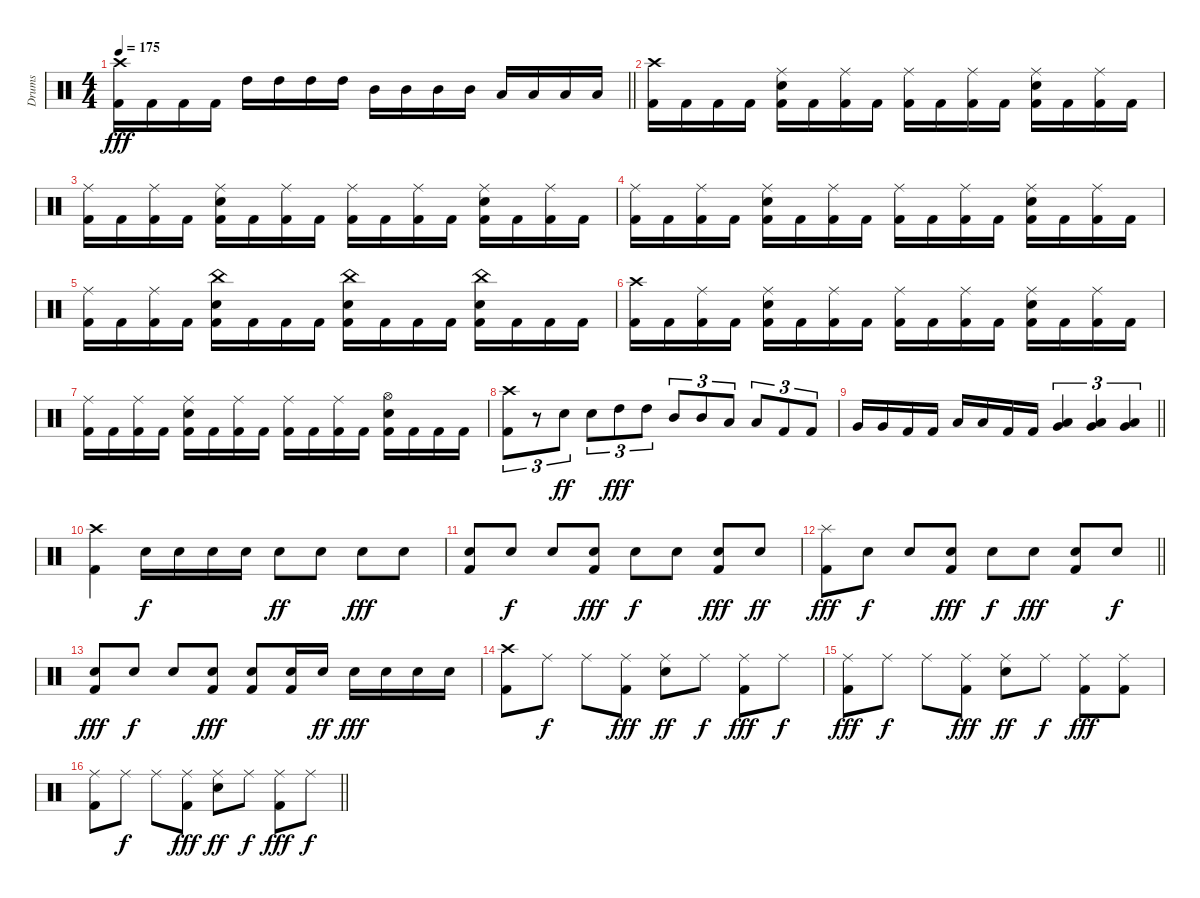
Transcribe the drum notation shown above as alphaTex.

\track ("Drums" "Drums") {instrument percussion}
\staff {score}
\articulation defaults
\ts (4 4)
\tempo 175
\clef neutral
\barLineRight lightlight
\ks c
("Crash high (hit)" "Kick (hit) 2").16{dy fff} "Kick (hit) 2".16 "Kick (hit) 2".16 "Kick (hit) 2".16 "High Tom (hit)".16 "High Tom (hit)".16 "High Tom (hit)".16 "High Tom (hit)".16 "Mid Tom (hit)".16 "Mid Tom (hit)".16 "Mid Tom (hit)".16 "Mid Tom (hit)".16 "Low Tom (hit)".16 "Low Tom (hit)".16 "Low Tom (hit)".16 "Low Tom (hit)".16 |
("Crash high (hit)" "Kick (hit) 2").16 "Kick (hit) 2".16 "Kick (hit) 2".16 "Kick (hit) 2".16 ("Ride (middle)" "Snare (hit) 2" "Kick (hit) 2").16 "Kick (hit) 2".16 ("Ride (middle)" "Kick (hit) 2").16 "Kick (hit) 2".16 ("Ride (middle)" "Kick (hit) 2").16 "Kick (hit) 2".16 ("Ride (middle)" "Kick (hit) 2").16 "Kick (hit) 2".16 ("Ride (middle)" "Snare (hit) 2" "Kick (hit) 2").16 "Kick (hit) 2".16 ("Ride (middle)" "Kick (hit) 2").16 "Kick (hit) 2".16 |
("Ride (middle)" "Kick (hit) 2").16 "Kick (hit) 2".16 ("Ride (middle)" "Kick (hit) 2").16 "Kick (hit) 2".16 ("Ride (middle)" "Snare (hit) 2" "Kick (hit) 2").16 "Kick (hit) 2".16 ("Ride (middle)" "Kick (hit) 2").16 "Kick (hit) 2".16 ("Ride (middle)" "Kick (hit) 2").16 "Kick (hit) 2".16 ("Ride (middle)" "Kick (hit) 2").16 "Kick (hit) 2".16 ("Ride (middle)" "Snare (hit) 2" "Kick (hit) 2").16 "Kick (hit) 2".16 ("Ride (middle)" "Kick (hit) 2").16 "Kick (hit) 2".16 |
("Ride (middle)" "Kick (hit) 2").16 "Kick (hit) 2".16 ("Ride (middle)" "Kick (hit) 2").16 "Kick (hit) 2".16 ("Ride (middle)" "Snare (hit) 2" "Kick (hit) 2").16 "Kick (hit) 2".16 ("Ride (middle)" "Kick (hit) 2").16 "Kick (hit) 2".16 ("Ride (middle)" "Kick (hit) 2").16 "Kick (hit) 2".16 ("Ride (middle)" "Kick (hit) 2").16 "Kick (hit) 2".16 ("Ride (middle)" "Snare (hit) 2" "Kick (hit) 2").16 "Kick (hit) 2".16 ("Ride (middle)" "Kick (hit) 2").16 "Kick (hit) 2".16 |
("Ride (middle)" "Kick (hit) 2").16 "Kick (hit) 2".16 ("Ride (middle)" "Kick (hit) 2").16 "Kick (hit) 2".16 ("China (hit)" "Snare (hit) 2" "Kick (hit) 2").16 "Kick (hit) 2".16 "Kick (hit) 2".16 "Kick (hit) 2".16 ("China (hit)" "Snare (hit) 2" "Kick (hit) 2").16 "Kick (hit) 2".16 "Kick (hit) 2".16 "Kick (hit) 2".16 ("China (hit)" "Snare (hit) 2" "Kick (hit) 2").16 "Kick (hit) 2".16 "Kick (hit) 2".16 "Kick (hit) 2".16 |
("Crash high (hit)" "Kick (hit) 2").16 "Kick (hit) 2".16 ("Ride (middle)" "Kick (hit) 2").16 "Kick (hit) 2".16 ("Ride (middle)" "Snare (hit) 2" "Kick (hit) 2").16 "Kick (hit) 2".16 ("Ride (middle)" "Kick (hit) 2").16 "Kick (hit) 2".16 ("Ride (middle)" "Kick (hit) 2").16 "Kick (hit) 2".16 ("Ride (middle)" "Kick (hit) 2").16 "Kick (hit) 2".16 ("Ride (middle)" "Snare (hit) 2" "Kick (hit) 2").16 "Kick (hit) 2".16 ("Ride (middle)" "Kick (hit) 2").16 "Kick (hit) 2".16 |
("Ride (middle)" "Kick (hit) 2").16 "Kick (hit) 2".16 ("Ride (middle)" "Kick (hit) 2").16 "Kick (hit) 2".16 ("Ride (middle)" "Snare (hit) 2" "Kick (hit) 2").16 "Kick (hit) 2".16 ("Ride (middle)" "Kick (hit) 2").16 "Kick (hit) 2".16 ("Ride (middle)" "Kick (hit) 2").16 "Kick (hit) 2".16 ("Ride (middle)" "Kick (hit) 2").16 "Kick (hit) 2".16 ("Hi-Hat (open)" "Snare (hit) 2" "Kick (hit) 2").16 "Kick (hit) 2".16 "Kick (hit) 2".16 "Kick (hit) 2".16 |
("Crash high (hit)" "Kick (hit) 2").8{tu (3 2)} r.8{tu (3 2)} "Snare (hit) 2".8{tu (3 2) dy ff} "Snare (hit) 2".8{tu (3 2)} "High Tom (hit)".8{tu (3 2) dy fff} "High Tom (hit)".8{tu (3 2)} "Mid Tom (hit)".8{tu (3 2)} "Mid Tom (hit)".8{tu (3 2)} "Low Tom (hit)".8{tu (3 2)} "Low Tom (hit)".8{tu (3 2)} "Kick (hit) 2".8{tu (3 2)} "Kick (hit) 2".8{tu (3 2)} |
\barLineRight lightlight "Very Low Tom (hit)".16 "Very Low Tom (hit)".16 "Kick (hit) 2".16 "Kick (hit) 2".16 "Low Floor Tom (hit)".16 "Low Floor Tom (hit)".16 "Kick (hit) 2".16 "Kick (hit) 2".16
("Very Low Tom (hit)" "Low Floor Tom (hit)").4{tu (3 2)} ("Very Low Tom (hit)" "Low Floor Tom (hit)").4{tu (3 2)} ("Very Low Tom (hit)" "Low Floor Tom (hit)").4{tu (3 2)} |
("Crash high (hit)" "Kick (hit) 2").4 "Snare (hit) 2".16{dy f} "Snare (hit) 2".16 "Snare (hit) 2".16 "Snare (hit) 2".16 "Snare (hit) 2".8{dy ff} "Snare (hit) 2".8 "Snare (hit) 2".8{dy fff} "Snare (hit) 2".8 |
("Snare (hit) 2" "Kick (hit) 2").8 "Snare (hit) 2".8{dy f} "Snare (hit) 2".8 ("Snare (hit) 2" "Kick (hit) 2").8{dy fff} "Snare (hit) 2".8{dy f} "Snare (hit) 2".8 ("Snare (hit) 2" "Kick (hit) 2").8{dy fff} "Snare (hit) 2".8{dy ff} |
\barLineRight lightlight
("Splash (hit)" "Kick (hit) 2").8{dy fff} "Snare (hit) 2".8{dy f} "Snare (hit) 2".8 ("Snare (hit) 2" "Kick (hit) 2").8{dy fff} "Snare (hit) 2".8{dy f} "Snare (hit) 2".8{dy fff} ("Snare (hit) 2" "Kick (hit) 2").8 "Snare (hit) 2".8{dy f} |
("Snare (hit) 2" "Kick (hit) 2").8{dy fff} "Snare (hit) 2".8{dy f} "Snare (hit) 2".8 ("Snare (hit) 2" "Kick (hit) 2").8{dy fff} ("Snare (hit) 2" "Kick (hit) 2").8 ("Snare (hit) 2" "Kick (hit) 2").16 "Snare (hit) 2".16{dy ff} "Snare (hit) 2".16{dy fff} "Snare (hit) 2".16 "Snare (hit) 2".16 "Snare (hit) 2".16 |
("Crash high (hit)" "Kick (hit) 2").8 "Ride (middle)".8{dy f} "Ride (middle)".8 ("Ride (middle)" "Kick (hit) 2").8{dy fff} ("Ride (middle)" "Snare (hit) 2").8{dy ff} "Ride (middle)".8{dy f} ("Ride (middle)" "Kick (hit) 2").8{dy fff} "Ride (middle)".8{dy f} |
("Ride (middle)" "Kick (hit) 2").8{dy fff} "Ride (middle)".8{dy f} "Ride (middle)".8 ("Ride (middle)" "Kick (hit) 2").8{dy fff} ("Ride (middle)" "Snare (hit) 2").8{dy ff} "Ride (middle)".8{dy f} ("Ride (middle)" "Kick (hit) 2").8{dy fff} ("Ride (middle)" "Kick (hit) 2").8 |
\barLineRight lightlight
("Ride (middle)" "Kick (hit) 2").8 "Ride (middle)".8{dy f} "Ride (middle)".8 ("Ride (middle)" "Kick (hit) 2").8{dy fff} ("Ride (middle)" "Snare (hit) 2").8{dy ff} "Ride (middle)".8{dy f} ("Ride (middle)" "Kick (hit) 2").8{dy fff} "Ride (middle)".8{dy f}
